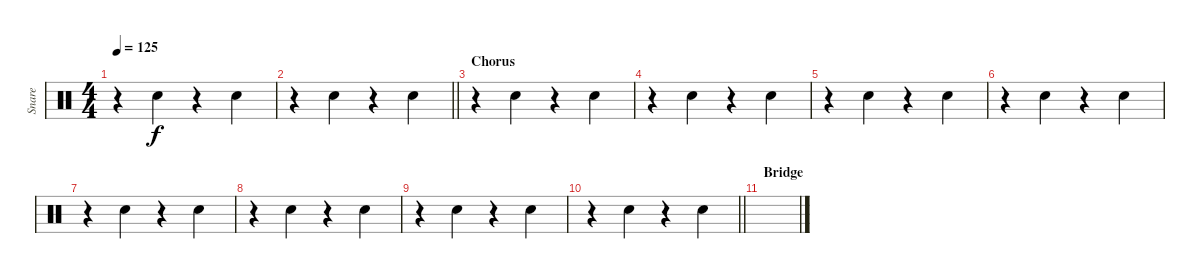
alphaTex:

\track ("Snare" "Snare") {instrument percussion}
\staff {score}
\articulation defaults
\ts (4 4)
\tempo 125
\clef neutral
\ks c
r.4{dy f} "Electric Snare (hit)".4 r.4 "Electric Snare (hit)".4 |
\barLineRight lightlight
r.4 "Electric Snare (hit)".4 r.4 "Electric Snare (hit)".4 |
\section ("" "Chorus")
r.4 "Electric Snare (hit)".4 r.4 "Electric Snare (hit)".4 |
r.4 "Electric Snare (hit)".4 r.4 "Electric Snare (hit)".4 |
r.4 "Electric Snare (hit)".4 r.4 "Electric Snare (hit)".4 |
r.4 "Electric Snare (hit)".4 r.4 "Electric Snare (hit)".4 |
r.4 "Electric Snare (hit)".4 r.4 "Electric Snare (hit)".4 |
r.4 "Electric Snare (hit)".4 r.4 "Electric Snare (hit)".4 |
r.4 "Electric Snare (hit)".4 r.4 "Electric Snare (hit)".4 |
\barLineRight lightlight
r.4 "Electric Snare (hit)".4 r.4 "Electric Snare (hit)".4 |
\section ("" "Bridge")
